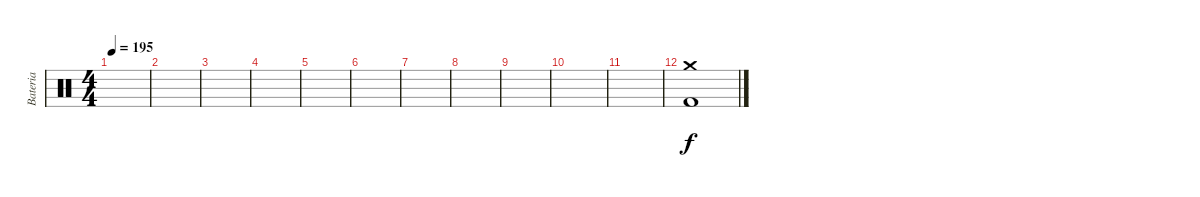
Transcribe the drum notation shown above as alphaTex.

\track ("Bateria" "Bateria") {instrument percussion}
\staff {score}
\articulation defaults
\ts (4 4)
\tempo 195
\clef neutral
\ks c
|
|
|
|
|
|
|
|
|
|
|
("Crash medium (hit)" "Kick (hit) 2").1
